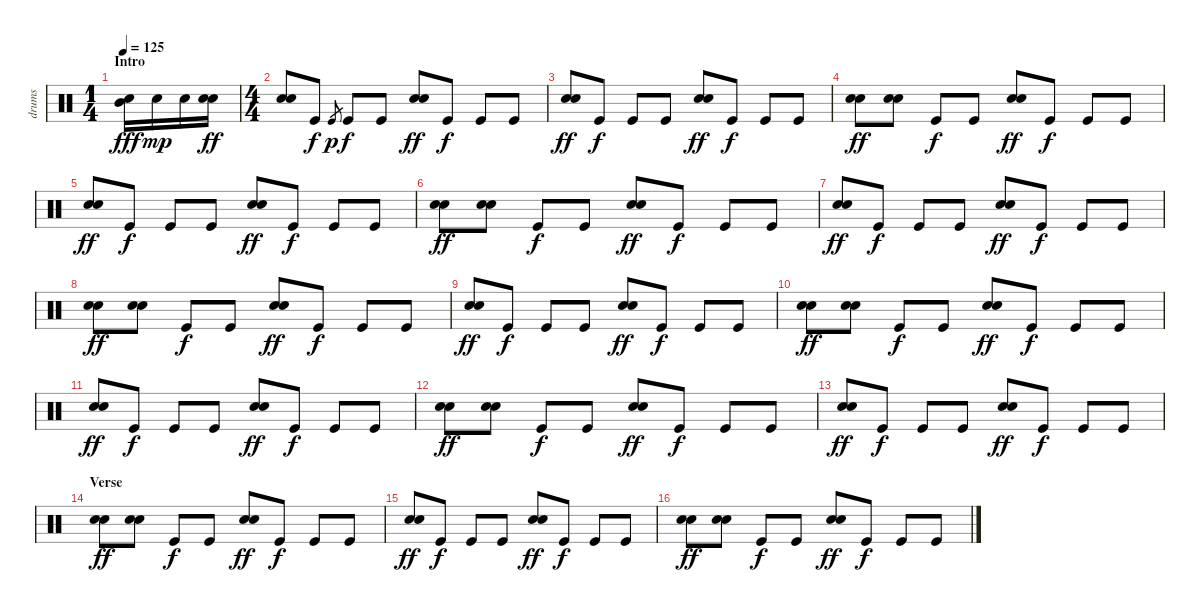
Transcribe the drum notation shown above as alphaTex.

\track ("drums" "drums") {instrument percussion}
\staff {score}
\articulation defaults
\ts (1 4)
\section ("" "Intro")
\tempo 125
\clef neutral
\ks c
("Electric Snare (hit)" "Mid Tom (hit)").16{dy fff} "Electric Snare (hit)".16{dy mp} "Electric Snare (hit)".16 ("Electric Snare (hit)" "Hand Clap (hit)").16{dy ff} |
\ts (4 4)
("Electric Snare (hit)" "Hand Clap (hit)").8 "Kick (hit)".8{dy f} "Kick (hit)".8{gr dy p} "Kick (hit)".8{dy f} "Kick (hit)".8 ("Electric Snare (hit)" "Hand Clap (hit)").8{dy ff} "Kick (hit)".8{dy f} "Kick (hit)".8 "Kick (hit)".8 |
("Electric Snare (hit)" "Hand Clap (hit)").8{dy ff} "Kick (hit)".8{dy f} "Kick (hit)".8 "Kick (hit)".8 ("Electric Snare (hit)" "Hand Clap (hit)").8{dy ff} "Kick (hit)".8{dy f} "Kick (hit)".8 "Kick (hit)".8 |
("Electric Snare (hit)" "Hand Clap (hit)").8{dy ff} ("Electric Snare (hit)" "Hand Clap (hit)").8 "Kick (hit)".8{dy f} "Kick (hit)".8 ("Electric Snare (hit)" "Hand Clap (hit)").8{dy ff} "Kick (hit)".8{dy f} "Kick (hit)".8 "Kick (hit)".8 |
("Electric Snare (hit)" "Hand Clap (hit)").8{dy ff} "Kick (hit)".8{dy f} "Kick (hit)".8 "Kick (hit)".8 ("Electric Snare (hit)" "Hand Clap (hit)").8{dy ff} "Kick (hit)".8{dy f} "Kick (hit)".8 "Kick (hit)".8 |
("Electric Snare (hit)" "Hand Clap (hit)").8{dy ff} ("Electric Snare (hit)" "Hand Clap (hit)").8 "Kick (hit)".8{dy f} "Kick (hit)".8 ("Electric Snare (hit)" "Hand Clap (hit)").8{dy ff} "Kick (hit)".8{dy f} "Kick (hit)".8 "Kick (hit)".8 |
("Electric Snare (hit)" "Hand Clap (hit)").8{dy ff} "Kick (hit)".8{dy f} "Kick (hit)".8 "Kick (hit)".8 ("Electric Snare (hit)" "Hand Clap (hit)").8{dy ff} "Kick (hit)".8{dy f} "Kick (hit)".8 "Kick (hit)".8 |
("Electric Snare (hit)" "Hand Clap (hit)").8{dy ff} ("Electric Snare (hit)" "Hand Clap (hit)").8 "Kick (hit)".8{dy f} "Kick (hit)".8 ("Electric Snare (hit)" "Hand Clap (hit)").8{dy ff} "Kick (hit)".8{dy f} "Kick (hit)".8 "Kick (hit)".8 |
("Electric Snare (hit)" "Hand Clap (hit)").8{dy ff} "Kick (hit)".8{dy f} "Kick (hit)".8 "Kick (hit)".8 ("Electric Snare (hit)" "Hand Clap (hit)").8{dy ff} "Kick (hit)".8{dy f} "Kick (hit)".8 "Kick (hit)".8 |
("Electric Snare (hit)" "Hand Clap (hit)").8{dy ff} ("Electric Snare (hit)" "Hand Clap (hit)").8 "Kick (hit)".8{dy f} "Kick (hit)".8 ("Electric Snare (hit)" "Hand Clap (hit)").8{dy ff} "Kick (hit)".8{dy f} "Kick (hit)".8 "Kick (hit)".8 |
("Electric Snare (hit)" "Hand Clap (hit)").8{dy ff} "Kick (hit)".8{dy f} "Kick (hit)".8 "Kick (hit)".8 ("Electric Snare (hit)" "Hand Clap (hit)").8{dy ff} "Kick (hit)".8{dy f} "Kick (hit)".8 "Kick (hit)".8 |
("Electric Snare (hit)" "Hand Clap (hit)").8{dy ff} ("Electric Snare (hit)" "Hand Clap (hit)").8 "Kick (hit)".8{dy f} "Kick (hit)".8 ("Electric Snare (hit)" "Hand Clap (hit)").8{dy ff} "Kick (hit)".8{dy f} "Kick (hit)".8 "Kick (hit)".8 |
("Electric Snare (hit)" "Hand Clap (hit)").8{dy ff} "Kick (hit)".8{dy f} "Kick (hit)".8 "Kick (hit)".8 ("Electric Snare (hit)" "Hand Clap (hit)").8{dy ff} "Kick (hit)".8{dy f} "Kick (hit)".8 "Kick (hit)".8 |
\section ("" "Verse")
("Electric Snare (hit)" "Hand Clap (hit)").8{dy ff} ("Electric Snare (hit)" "Hand Clap (hit)").8 "Kick (hit)".8{dy f} "Kick (hit)".8 ("Electric Snare (hit)" "Hand Clap (hit)").8{dy ff} "Kick (hit)".8{dy f} "Kick (hit)".8 "Kick (hit)".8 |
("Electric Snare (hit)" "Hand Clap (hit)").8{dy ff} "Kick (hit)".8{dy f} "Kick (hit)".8 "Kick (hit)".8 ("Electric Snare (hit)" "Hand Clap (hit)").8{dy ff} "Kick (hit)".8{dy f} "Kick (hit)".8 "Kick (hit)".8 |
("Electric Snare (hit)" "Hand Clap (hit)").8{dy ff} ("Electric Snare (hit)" "Hand Clap (hit)").8 "Kick (hit)".8{dy f} "Kick (hit)".8 ("Electric Snare (hit)" "Hand Clap (hit)").8{dy ff} "Kick (hit)".8{dy f} "Kick (hit)".8 "Kick (hit)".8
